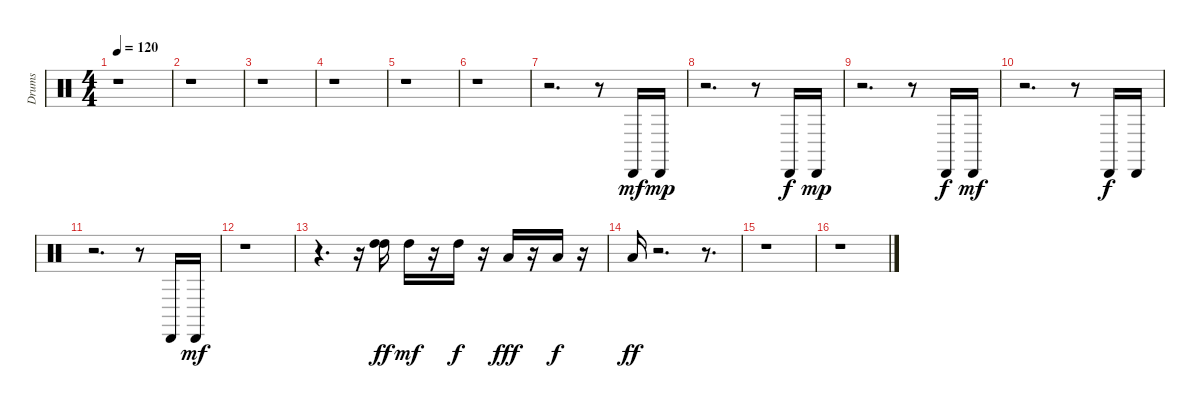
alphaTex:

\track ("Drums" "Drums") {instrument percussion}
\staff {score}
\articulation defaults
\ts (4 4)
\tempo 120
\clef neutral
\ks c
r.1{dy ff} |
r.1 |
r.1 |
r.1 |
r.1 |
r.1 |
r.2{d} r.8 "Cabasa (hit)".16{dy mf} "Cabasa (hit)".16{dy mp} |
r.2{d} r.8 "Cabasa (hit)".16{dy f} "Cabasa (hit)".16{dy mp} |
r.2{d} r.8 "Cabasa (hit)".16{dy f} "Cabasa (hit)".16{dy mf} |
r.2{d} r.8 "Cabasa (hit)".16{dy f} "Cabasa (hit)".16 |
r.2{d} r.8 "Cabasa (hit)".16 "Cabasa (hit)".16{dy mf} |
r.1 |
r.4{d} r.16 ("High Tom (hit)" "High Tom (hit)").16{dy ff} "High Tom (hit)".16{dy mf} r.16 "High Tom (hit)".16{dy f} r.16 "Low Tom (hit)".16{dy fff} r.16 "Low Tom (hit)".16{dy f} r.16 |
"Low Floor Tom (hit)".16{dy ff} r.2{d} r.8{d} |
r.1 |
r.1
